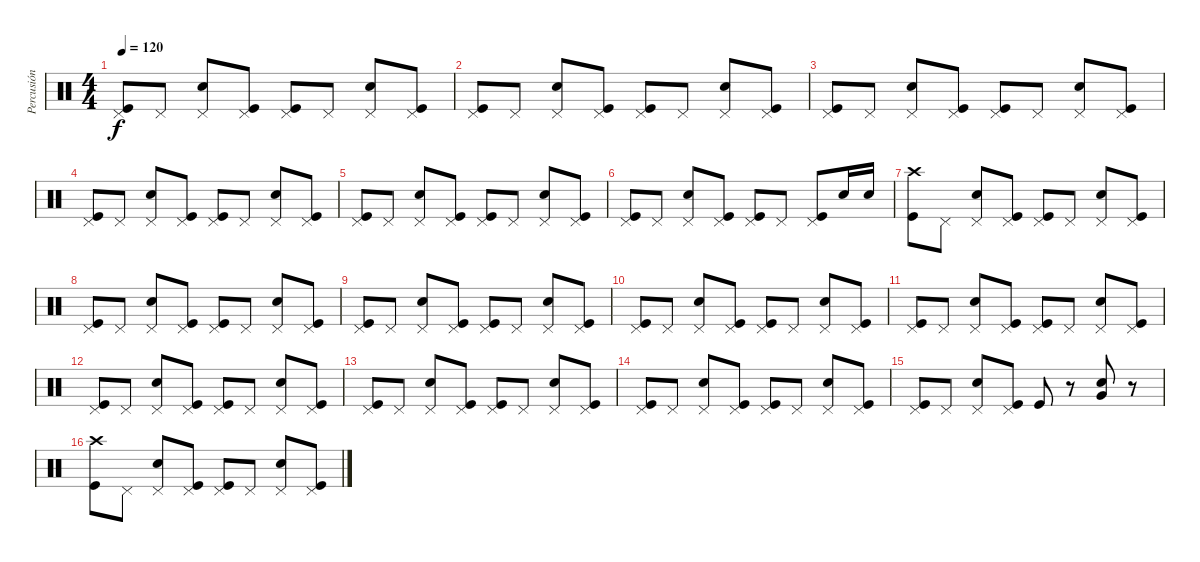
\track ("Percusión" "Percusión") {instrument percussion}
\staff {score}
\articulation defaults
\ts (4 4)
\tempo 120
\clef neutral
\ks c
("Pedal Hi-Hat (hit)" "Kick (hit)").8{dy f} "Pedal Hi-Hat (hit)".8 ("Pedal Hi-Hat (hit)" "Electric Snare (hit)").8 ("Pedal Hi-Hat (hit)" "Kick (hit)").8 ("Pedal Hi-Hat (hit)" "Kick (hit)").8 "Pedal Hi-Hat (hit)".8 ("Pedal Hi-Hat (hit)" "Electric Snare (hit)").8 ("Pedal Hi-Hat (hit)" "Kick (hit)").8 |
("Pedal Hi-Hat (hit)" "Kick (hit)").8 "Pedal Hi-Hat (hit)".8 ("Pedal Hi-Hat (hit)" "Electric Snare (hit)").8 ("Pedal Hi-Hat (hit)" "Kick (hit)").8 ("Pedal Hi-Hat (hit)" "Kick (hit)").8 "Pedal Hi-Hat (hit)".8 ("Pedal Hi-Hat (hit)" "Electric Snare (hit)").8 ("Pedal Hi-Hat (hit)" "Kick (hit)").8 |
("Pedal Hi-Hat (hit)" "Kick (hit)").8 "Pedal Hi-Hat (hit)".8 ("Pedal Hi-Hat (hit)" "Electric Snare (hit)").8 ("Pedal Hi-Hat (hit)" "Kick (hit)").8 ("Pedal Hi-Hat (hit)" "Kick (hit)").8 "Pedal Hi-Hat (hit)".8 ("Pedal Hi-Hat (hit)" "Electric Snare (hit)").8 ("Pedal Hi-Hat (hit)" "Kick (hit)").8 |
("Pedal Hi-Hat (hit)" "Kick (hit)").8 "Pedal Hi-Hat (hit)".8 ("Pedal Hi-Hat (hit)" "Electric Snare (hit)").8 ("Pedal Hi-Hat (hit)" "Kick (hit)").8 ("Pedal Hi-Hat (hit)" "Kick (hit)").8 "Pedal Hi-Hat (hit)".8 ("Pedal Hi-Hat (hit)" "Electric Snare (hit)").8 ("Pedal Hi-Hat (hit)" "Kick (hit)").8 |
("Pedal Hi-Hat (hit)" "Kick (hit)").8 "Pedal Hi-Hat (hit)".8 ("Pedal Hi-Hat (hit)" "Electric Snare (hit)").8 ("Pedal Hi-Hat (hit)" "Kick (hit)").8 ("Pedal Hi-Hat (hit)" "Kick (hit)").8 "Pedal Hi-Hat (hit)".8 ("Pedal Hi-Hat (hit)" "Electric Snare (hit)").8 ("Pedal Hi-Hat (hit)" "Kick (hit)").8 |
("Pedal Hi-Hat (hit)" "Kick (hit)").8 "Pedal Hi-Hat (hit)".8 ("Pedal Hi-Hat (hit)" "Electric Snare (hit)").8 ("Pedal Hi-Hat (hit)" "Kick (hit)").8 ("Pedal Hi-Hat (hit)" "Kick (hit)").8 "Pedal Hi-Hat (hit)".8 ("Pedal Hi-Hat (hit)" "Kick (hit)").8 "Electric Snare (hit)".16 "Electric Snare (hit)".16 |
("Crash high (hit)" "Kick (hit)").8 "Pedal Hi-Hat (hit)".8 ("Pedal Hi-Hat (hit)" "Electric Snare (hit)").8 ("Pedal Hi-Hat (hit)" "Kick (hit)").8 ("Pedal Hi-Hat (hit)" "Kick (hit)").8 "Pedal Hi-Hat (hit)".8 ("Pedal Hi-Hat (hit)" "Electric Snare (hit)").8 ("Pedal Hi-Hat (hit)" "Kick (hit)").8 |
("Pedal Hi-Hat (hit)" "Kick (hit)").8 "Pedal Hi-Hat (hit)".8 ("Pedal Hi-Hat (hit)" "Electric Snare (hit)").8 ("Pedal Hi-Hat (hit)" "Kick (hit)").8 ("Pedal Hi-Hat (hit)" "Kick (hit)").8 "Pedal Hi-Hat (hit)".8 ("Pedal Hi-Hat (hit)" "Electric Snare (hit)").8 ("Pedal Hi-Hat (hit)" "Kick (hit)").8 |
("Pedal Hi-Hat (hit)" "Kick (hit)").8 "Pedal Hi-Hat (hit)".8 ("Pedal Hi-Hat (hit)" "Electric Snare (hit)").8 ("Pedal Hi-Hat (hit)" "Kick (hit)").8 ("Pedal Hi-Hat (hit)" "Kick (hit)").8 "Pedal Hi-Hat (hit)".8 ("Pedal Hi-Hat (hit)" "Electric Snare (hit)").8 ("Pedal Hi-Hat (hit)" "Kick (hit)").8 |
("Pedal Hi-Hat (hit)" "Kick (hit)").8 "Pedal Hi-Hat (hit)".8 ("Pedal Hi-Hat (hit)" "Electric Snare (hit)").8 ("Pedal Hi-Hat (hit)" "Kick (hit)").8 ("Pedal Hi-Hat (hit)" "Kick (hit)").8 "Pedal Hi-Hat (hit)".8 ("Pedal Hi-Hat (hit)" "Electric Snare (hit)").8 ("Pedal Hi-Hat (hit)" "Kick (hit)").8 |
("Pedal Hi-Hat (hit)" "Kick (hit)").8 "Pedal Hi-Hat (hit)".8 ("Pedal Hi-Hat (hit)" "Electric Snare (hit)").8 ("Pedal Hi-Hat (hit)" "Kick (hit)").8 ("Pedal Hi-Hat (hit)" "Kick (hit)").8 "Pedal Hi-Hat (hit)".8 ("Pedal Hi-Hat (hit)" "Electric Snare (hit)").8 ("Pedal Hi-Hat (hit)" "Kick (hit)").8 |
("Pedal Hi-Hat (hit)" "Kick (hit)").8 "Pedal Hi-Hat (hit)".8 ("Pedal Hi-Hat (hit)" "Electric Snare (hit)").8 ("Pedal Hi-Hat (hit)" "Kick (hit)").8 ("Pedal Hi-Hat (hit)" "Kick (hit)").8 "Pedal Hi-Hat (hit)".8 ("Pedal Hi-Hat (hit)" "Electric Snare (hit)").8 ("Pedal Hi-Hat (hit)" "Kick (hit)").8 |
("Pedal Hi-Hat (hit)" "Kick (hit)").8 "Pedal Hi-Hat (hit)".8 ("Pedal Hi-Hat (hit)" "Electric Snare (hit)").8 ("Pedal Hi-Hat (hit)" "Kick (hit)").8 ("Pedal Hi-Hat (hit)" "Kick (hit)").8 "Pedal Hi-Hat (hit)".8 ("Pedal Hi-Hat (hit)" "Electric Snare (hit)").8 ("Pedal Hi-Hat (hit)" "Kick (hit)").8 |
("Pedal Hi-Hat (hit)" "Kick (hit)").8 "Pedal Hi-Hat (hit)".8 ("Pedal Hi-Hat (hit)" "Electric Snare (hit)").8 ("Pedal Hi-Hat (hit)" "Kick (hit)").8 ("Pedal Hi-Hat (hit)" "Kick (hit)").8 "Pedal Hi-Hat (hit)".8 ("Pedal Hi-Hat (hit)" "Electric Snare (hit)").8 ("Pedal Hi-Hat (hit)" "Kick (hit)").8 |
("Pedal Hi-Hat (hit)" "Kick (hit)").8 "Pedal Hi-Hat (hit)".8 ("Pedal Hi-Hat (hit)" "Electric Snare (hit)").8 ("Pedal Hi-Hat (hit)" "Kick (hit)").8 "Kick (hit)".8 r.8 ("Very Low Tom (hit)" "Electric Snare (hit)").8 r.8 |
("Crash high (hit)" "Kick (hit)").8 "Pedal Hi-Hat (hit)".8 ("Pedal Hi-Hat (hit)" "Electric Snare (hit)").8 ("Pedal Hi-Hat (hit)" "Kick (hit)").8 ("Pedal Hi-Hat (hit)" "Kick (hit)").8 "Pedal Hi-Hat (hit)".8 ("Pedal Hi-Hat (hit)" "Electric Snare (hit)").8 ("Pedal Hi-Hat (hit)" "Kick (hit)").8
